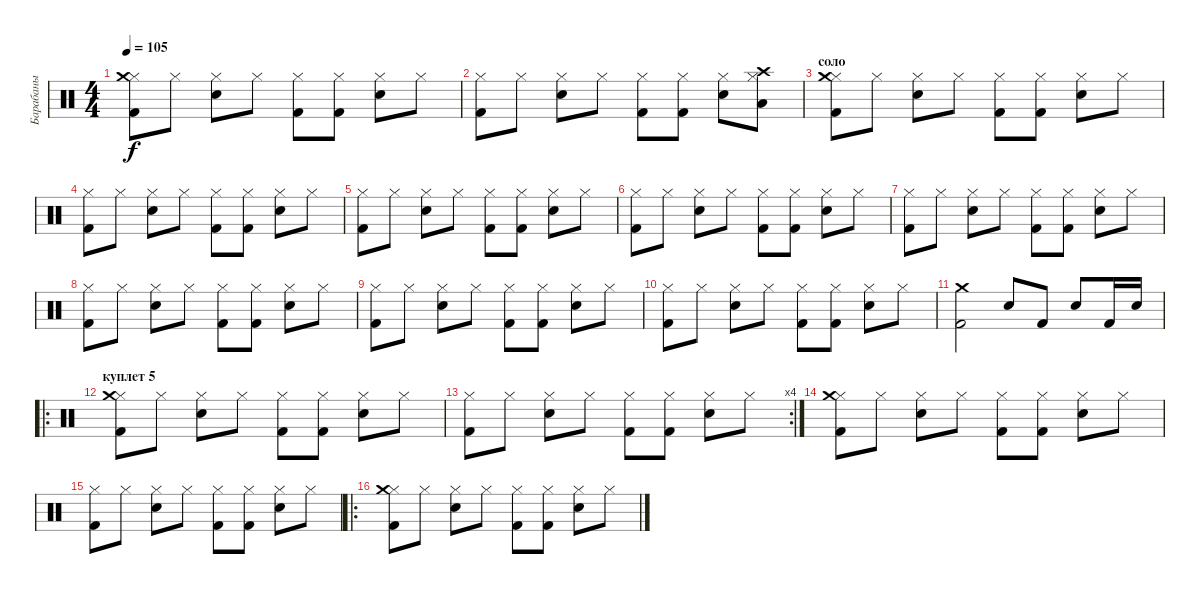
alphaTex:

\track ("Барабаны" "Барабаны") {instrument percussion}
\staff {score}
\articulation defaults
\ts (4 4)
\tempo 105
\clef neutral
\ks c
("Hi-Hat (closed)" "Kick (hit) 2" "Crash medium (hit)").8{dy f} "Hi-Hat (closed)".8 ("Hi-Hat (closed)" "Electric Snare (hit)").8 "Hi-Hat (closed)".8 ("Hi-Hat (closed)" "Kick (hit) 2").8 ("Hi-Hat (closed)" "Kick (hit) 2").8 ("Hi-Hat (closed)" "Electric Snare (hit)").8 "Hi-Hat (closed)".8 |
("Hi-Hat (closed)" "Kick (hit) 2").8 "Hi-Hat (closed)".8 ("Hi-Hat (closed)" "Electric Snare (hit)").8 "Hi-Hat (closed)".8 ("Hi-Hat (closed)" "Kick (hit) 2").8 ("Hi-Hat (closed)" "Kick (hit) 2").8 ("Hi-Hat (closed)" "Electric Snare (hit)").8 ("Hi-Hat (closed)" "Low Tom (hit)" "Crash high (hit)").8 |
\section ("" "соло")
("Hi-Hat (closed)" "Kick (hit) 2" "Crash medium (hit)").8 "Hi-Hat (closed)".8 ("Hi-Hat (closed)" "Electric Snare (hit)").8 "Hi-Hat (closed)".8 ("Hi-Hat (closed)" "Kick (hit) 2").8 ("Hi-Hat (closed)" "Kick (hit) 2").8 ("Hi-Hat (closed)" "Electric Snare (hit)").8 "Hi-Hat (closed)".8 |
("Hi-Hat (closed)" "Kick (hit) 2").8 "Hi-Hat (closed)".8 ("Hi-Hat (closed)" "Electric Snare (hit)").8 "Hi-Hat (closed)".8 ("Hi-Hat (closed)" "Kick (hit) 2").8 ("Hi-Hat (closed)" "Kick (hit) 2").8 ("Hi-Hat (closed)" "Electric Snare (hit)").8 "Hi-Hat (closed)".8 |
("Hi-Hat (closed)" "Kick (hit) 2").8 "Hi-Hat (closed)".8 ("Hi-Hat (closed)" "Electric Snare (hit)").8 "Hi-Hat (closed)".8 ("Hi-Hat (closed)" "Kick (hit) 2").8 ("Hi-Hat (closed)" "Kick (hit) 2").8 ("Hi-Hat (closed)" "Electric Snare (hit)").8 "Hi-Hat (closed)".8 |
("Hi-Hat (closed)" "Kick (hit) 2").8 "Hi-Hat (closed)".8 ("Hi-Hat (closed)" "Electric Snare (hit)").8 "Hi-Hat (closed)".8 ("Hi-Hat (closed)" "Kick (hit) 2").8 ("Hi-Hat (closed)" "Kick (hit) 2").8 ("Hi-Hat (closed)" "Electric Snare (hit)").8 "Hi-Hat (closed)".8 |
("Hi-Hat (closed)" "Kick (hit) 2").8 "Hi-Hat (closed)".8 ("Hi-Hat (closed)" "Electric Snare (hit)").8 "Hi-Hat (closed)".8 ("Hi-Hat (closed)" "Kick (hit) 2").8 ("Hi-Hat (closed)" "Kick (hit) 2").8 ("Hi-Hat (closed)" "Electric Snare (hit)").8 "Hi-Hat (closed)".8 |
("Hi-Hat (closed)" "Kick (hit) 2").8 "Hi-Hat (closed)".8 ("Hi-Hat (closed)" "Electric Snare (hit)").8 "Hi-Hat (closed)".8 ("Hi-Hat (closed)" "Kick (hit) 2").8 ("Hi-Hat (closed)" "Kick (hit) 2").8 ("Hi-Hat (closed)" "Electric Snare (hit)").8 "Hi-Hat (closed)".8 |
("Hi-Hat (closed)" "Kick (hit) 2").8 "Hi-Hat (closed)".8 ("Hi-Hat (closed)" "Electric Snare (hit)").8 "Hi-Hat (closed)".8 ("Hi-Hat (closed)" "Kick (hit) 2").8 ("Hi-Hat (closed)" "Kick (hit) 2").8 ("Hi-Hat (closed)" "Electric Snare (hit)").8 "Hi-Hat (closed)".8 |
("Hi-Hat (closed)" "Kick (hit) 2").8 "Hi-Hat (closed)".8 ("Hi-Hat (closed)" "Electric Snare (hit)").8 "Hi-Hat (closed)".8 ("Hi-Hat (closed)" "Kick (hit) 2").8 ("Hi-Hat (closed)" "Kick (hit) 2").8 ("Hi-Hat (closed)" "Electric Snare (hit)").8 "Hi-Hat (closed)".8 |
("Kick (hit) 2" "Crash medium (hit)").2 "Electric Snare (hit)".8 "Kick (hit) 2".8 "Electric Snare (hit)".8 "Kick (hit) 2".16 "Electric Snare (hit)".16 |
\ro
\section ("" "куплет 5")
("Hi-Hat (closed)" "Kick (hit) 2" "Crash medium (hit)").8 "Hi-Hat (closed)".8 ("Hi-Hat (closed)" "Electric Snare (hit)").8 "Hi-Hat (closed)".8 ("Hi-Hat (closed)" "Kick (hit) 2").8 ("Hi-Hat (closed)" "Kick (hit) 2").8 ("Hi-Hat (closed)" "Electric Snare (hit)").8 "Hi-Hat (closed)".8 |
\rc 4
("Hi-Hat (closed)" "Kick (hit) 2").8 "Hi-Hat (closed)".8 ("Hi-Hat (closed)" "Electric Snare (hit)").8 "Hi-Hat (closed)".8 ("Hi-Hat (closed)" "Kick (hit) 2").8 ("Hi-Hat (closed)" "Kick (hit) 2").8 ("Hi-Hat (closed)" "Electric Snare (hit)").8 "Hi-Hat (closed)".8 |
("Hi-Hat (closed)" "Kick (hit) 2" "Crash medium (hit)").8 "Hi-Hat (closed)".8 ("Hi-Hat (closed)" "Electric Snare (hit)").8 "Hi-Hat (closed)".8 ("Hi-Hat (closed)" "Kick (hit) 2").8 ("Hi-Hat (closed)" "Kick (hit) 2").8 ("Hi-Hat (closed)" "Electric Snare (hit)").8 "Hi-Hat (closed)".8 |
("Hi-Hat (closed)" "Kick (hit) 2").8 "Hi-Hat (closed)".8 ("Hi-Hat (closed)" "Electric Snare (hit)").8 "Hi-Hat (closed)".8 ("Hi-Hat (closed)" "Kick (hit) 2").8 ("Hi-Hat (closed)" "Kick (hit) 2").8 ("Hi-Hat (closed)" "Electric Snare (hit)").8 "Hi-Hat (closed)".8 |
\ro
\section ("" " ")
("Hi-Hat (closed)" "Kick (hit) 2" "Crash medium (hit)").8 "Hi-Hat (closed)".8 ("Hi-Hat (closed)" "Electric Snare (hit)").8 "Hi-Hat (closed)".8 ("Hi-Hat (closed)" "Kick (hit) 2").8 ("Hi-Hat (closed)" "Kick (hit) 2").8 ("Hi-Hat (closed)" "Electric Snare (hit)").8 "Hi-Hat (closed)".8
